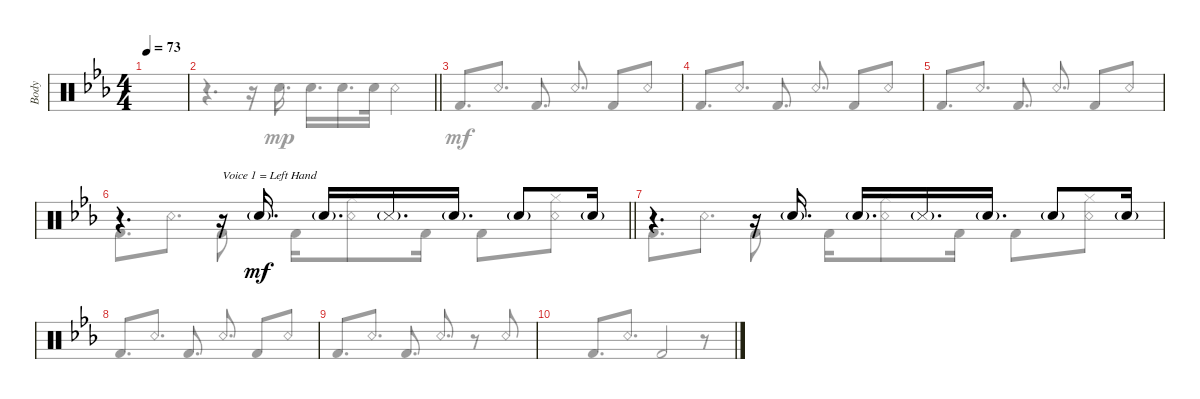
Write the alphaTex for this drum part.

\defaultSystemsLayout 2
\bracketExtendMode groupsimilarinstruments
\otherSystemsTrackNameOrientation horizontal
\track ("Drumkit" "Body ") {instrument percussion}
\staff {score}
\articulation defaults
\voice
\ts (4 4)
\scale
1.05991
\tempo 73
\accidentals auto
\clef neutral
\ottava regular
\simile none
\ks cminor
|
\scale
0.940093
\barLineRight lightlight
|
\scale
1.06459 |
\scale
0.935414 |
\scale
1.05991 |
\scale
0.940093
\barLineRight lightlight
r.4{d beam Up} r.16{txt "Voice 1 = Left Hand" beam Up} "Snare (hit) 2"{g acc forcenatural}.16{d dy mf beam Up} "Snare (hit) 2"{g acc forcenatural}.16{d beam Up} "Snare (side stick) 3"{g acc forcenatural}.16{d beam Up} "Snare (hit) 2"{g acc forcenatural}.16{d beam Up} "Snare (hit) 2"{g acc forcenatural}.8{beam Up} "Snare (hit) 2"{g acc forcenatural}.16{beam Up} |
\scale
1.06459 r.4{d beam Up} r.16{beam Up} "Snare (hit) 2"{g acc forcenatural}.16{d beam Up} "Snare (hit) 2"{g acc forcenatural}.16{d beam Up} "Snare (side stick) 3"{g acc forcenatural}.16{d beam Up} "Snare (hit) 2"{g acc forcenatural}.16{d beam Up} "Snare (hit) 2"{g acc forcenatural}.8{beam Up} "Snare (hit) 2"{g acc forcenatural}.16{beam Up} |
\scale
0.935414 |
\scale
1.05707 |
\scale
0.942934
\voice
\clef neutral
\ottava regular
\simile none
\ks cminor
|
\barLineRight lightlight
r.4{d beam Down} r.16{beam Down} "Snare (hit) 2"{acc forcenatural}.16{d dy mp beam Down} "Snare (hit) 2"{acc forcenatural}.16{d beam Down} "Snare (hit) 2"{acc forcenatural}.16{d beam Down} "Snare (hit) 2"{acc forcenatural}.32{beam Down} "Snare (rim shot)"{acc forcenatural}.4{beam Down} |
"Kick (hit) 2"{acc forcenatural}.8{d dy mf beam Up} "Snare (rim shot)"{acc forcenatural}.8{d beam Up} "Kick (hit) 2"{acc forcenatural}.8{d beam Up} "Snare (rim shot)"{acc forcenatural}.8{d beam Up} "Kick (hit) 2"{acc forcenatural}.8{beam Up} "Snare (rim shot)"{acc forcenatural}.8{beam Up} |
"Kick (hit) 2"{acc forcenatural}.8{d beam Up} "Snare (rim shot)"{acc forcenatural}.8{d beam Up} "Kick (hit) 2"{acc forcenatural}.8{d beam Up} "Snare (rim shot)"{acc forcenatural}.8{d beam Up} "Kick (hit) 2"{acc forcenatural}.8{beam Up} "Snare (rim shot)"{acc forcenatural}.8{beam Up} |
"Kick (hit) 2"{acc forcenatural}.8{d beam Up} "Snare (rim shot)"{acc forcenatural}.8{d beam Up} "Kick (hit) 2"{acc forcenatural}.8{d beam Up} "Snare (rim shot)"{acc forcenatural}.8{d beam Up} "Kick (hit) 2"{acc forcenatural}.8{beam Up} "Snare (rim shot)"{acc forcenatural}.8{beam Up} |
\barLineRight lightlight "Kick (hit) 2"{acc forcenatural}.8{d beam Down} "Snare (rim shot)"{acc forcenatural}.8{d beam Down} "Kick (hit) 2"{acc forcenatural}.8{txt "Voice 1 = Left Hand" beam Down} "Kick (hit) 2"{acc forcenatural}.16{beam Down}
("Snare (rim shot)"{acc forcenatural} "Hi-Hat (closed)"{acc forcenatural}).8{beam Down} "Kick (hit) 2"{acc forcenatural}.16{beam Down} "Kick (hit) 2"{acc forcenatural}.8{beam Down} ("Snare (rim shot)"{acc forcenatural} "Hi-Hat (closed)"{acc forcenatural}).8{beam Down} |
"Kick (hit) 2"{acc forcenatural}.8{d beam Down} "Snare (rim shot)"{acc forcenatural}.8{d beam Down} "Kick (hit) 2"{acc forcenatural}.8{beam Down} "Kick (hit) 2"{acc forcenatural}.16{beam Down} ("Snare (rim shot)"{acc forcenatural} "Hi-Hat (closed)"{acc forcenatural}).8{beam Down} "Kick (hit) 2"{acc forcenatural}.16{beam Down} "Kick (hit) 2"{acc forcenatural}.8{beam Down} ("Snare (rim shot)"{acc forcenatural} "Hi-Hat (closed)"{acc forcenatural}).8{beam Down} |
"Kick (hit) 2"{acc forcenatural}.8{d beam Up} "Snare (rim shot)"{acc forcenatural}.8{d beam Up} "Kick (hit) 2"{acc forcenatural}.8{d beam Up} "Snare (rim shot)"{acc forcenatural}.8{d beam Up} "Kick (hit) 2"{acc forcenatural}.8{beam Up} "Snare (rim shot)"{acc forcenatural}.8{beam Up} |
"Kick (hit) 2"{acc forcenatural}.8{d beam Up} "Snare (rim shot)"{acc forcenatural}.8{d beam Up} "Kick (hit) 2"{acc forcenatural}.8{d beam Up} "Snare (rim shot)"{acc forcenatural}.8{d beam Up} r.8{beam Up} "Snare (rim shot)"{acc forcenatural}.8{beam Down} |
"Kick (hit) 2"{acc forcenatural}.8{d beam Up} "Snare (rim shot)"{acc forcenatural}.8{d beam Up} "Kick (hit) 2"{acc forcenatural}.2{fermata (long 1) beam Up} r.8{beam Up}
